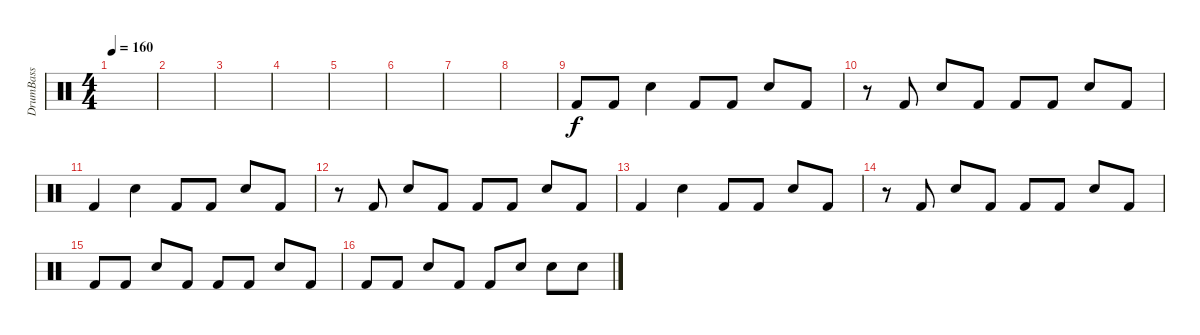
\track ("DrumBass" "DrumBass") {instrument percussion}
\staff {score}
\articulation defaults
\ts (4 4)
\tempo 160
\clef neutral
\ks c
|
|
|
|
|
|
|
|
"Kick (hit) 2".8 "Kick (hit) 2".8 "Snare (hit) 2".4 "Kick (hit) 2".8 "Kick (hit) 2".8 "Snare (hit) 2".8 "Kick (hit) 2".8 |
r.8 "Kick (hit) 2".8 "Snare (hit) 2".8 "Kick (hit) 2".8 "Kick (hit) 2".8 "Kick (hit) 2".8 "Snare (hit) 2".8 "Kick (hit) 2".8 |
"Kick (hit) 2".4 "Snare (hit) 2".4 "Kick (hit) 2".8 "Kick (hit) 2".8 "Snare (hit) 2".8 "Kick (hit) 2".8 |
r.8 "Kick (hit) 2".8 "Snare (hit) 2".8 "Kick (hit) 2".8 "Kick (hit) 2".8 "Kick (hit) 2".8 "Snare (hit) 2".8 "Kick (hit) 2".8 |
"Kick (hit) 2".4 "Snare (hit) 2".4 "Kick (hit) 2".8 "Kick (hit) 2".8 "Snare (hit) 2".8 "Kick (hit) 2".8 |
r.8 "Kick (hit) 2".8 "Snare (hit) 2".8 "Kick (hit) 2".8 "Kick (hit) 2".8 "Kick (hit) 2".8 "Snare (hit) 2".8 "Kick (hit) 2".8 |
"Kick (hit) 2".8 "Kick (hit) 2".8 "Snare (hit) 2".8 "Kick (hit) 2".8 "Kick (hit) 2".8 "Kick (hit) 2".8 "Snare (hit) 2".8 "Kick (hit) 2".8 |
"Kick (hit) 2".8 "Kick (hit) 2".8 "Snare (hit) 2".8 "Kick (hit) 2".8 "Kick (hit) 2".8 "Snare (hit) 2"{tr (38 16)}.8 "Snare (hit) 2"{tr (38 16)}.8 "Snare (hit) 2"{tr (38 16)}.8
